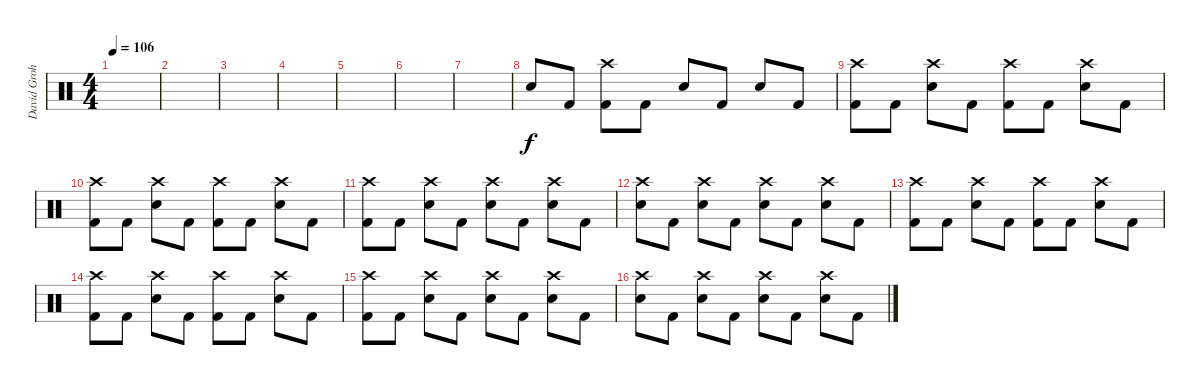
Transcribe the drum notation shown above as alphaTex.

\track ("David Grohl 2 Crash Style !!" "David Groh") {instrument percussion}
\staff {score}
\articulation defaults
\ts (4 4)
\tempo 106
\clef neutral
\ks c
|
|
|
|
|
|
|
"Snare (hit) 2".8 "Kick (hit) 2".8 ("Crash high (hit)" "Kick (hit) 2").8 "Kick (hit) 2".8 "Snare (hit) 2".8 "Kick (hit) 2".8 "Snare (hit) 2".8 "Kick (hit) 2".8 |
("Crash high (hit)" "Kick (hit) 2").8 "Kick (hit) 2".8 ("Crash high (hit)" "Snare (hit) 2").8 "Kick (hit) 2".8 ("Crash high (hit)" "Kick (hit) 2").8 "Kick (hit) 2".8 ("Crash high (hit)" "Snare (hit) 2").8 "Kick (hit) 2".8 |
("Crash high (hit)" "Kick (hit) 2").8 "Kick (hit) 2".8 ("Crash high (hit)" "Snare (hit) 2").8 "Kick (hit) 2".8 ("Crash high (hit)" "Kick (hit) 2").8 "Kick (hit) 2".8 ("Crash high (hit)" "Snare (hit) 2").8 "Kick (hit) 2".8 |
("Crash high (hit)" "Kick (hit) 2").8 "Kick (hit) 2".8 ("Crash high (hit)" "Snare (hit) 2").8 "Kick (hit) 2".8 ("Crash high (hit)" "Snare (hit) 2").8 "Kick (hit) 2".8 ("Crash high (hit)" "Snare (hit) 2").8 "Kick (hit) 2".8 |
("Crash high (hit)" "Snare (hit) 2").8 "Kick (hit) 2".8 ("Crash high (hit)" "Snare (hit) 2").8 "Kick (hit) 2".8 ("Crash high (hit)" "Snare (hit) 2").8 "Kick (hit) 2".8 ("Crash high (hit)" "Snare (hit) 2").8 "Kick (hit) 2".8 |
("Crash high (hit)" "Kick (hit) 2").8 "Kick (hit) 2".8 ("Crash high (hit)" "Snare (hit) 2").8 "Kick (hit) 2".8 ("Crash high (hit)" "Kick (hit) 2").8 "Kick (hit) 2".8 ("Crash high (hit)" "Snare (hit) 2").8 "Kick (hit) 2".8 |
("Crash high (hit)" "Kick (hit) 2").8 "Kick (hit) 2".8 ("Crash high (hit)" "Snare (hit) 2").8 "Kick (hit) 2".8 ("Crash high (hit)" "Kick (hit) 2").8 "Kick (hit) 2".8 ("Crash high (hit)" "Snare (hit) 2").8 "Kick (hit) 2".8 |
("Crash high (hit)" "Kick (hit) 2").8 "Kick (hit) 2".8 ("Crash high (hit)" "Snare (hit) 2").8 "Kick (hit) 2".8 ("Crash high (hit)" "Snare (hit) 2").8 "Kick (hit) 2".8 ("Crash high (hit)" "Snare (hit) 2").8 "Kick (hit) 2".8 |
("Crash high (hit)" "Snare (hit) 2").8 "Kick (hit) 2".8 ("Crash high (hit)" "Snare (hit) 2").8 "Kick (hit) 2".8 ("Crash high (hit)" "Snare (hit) 2").8 "Kick (hit) 2".8 ("Crash high (hit)" "Snare (hit) 2").8 "Kick (hit) 2".8
